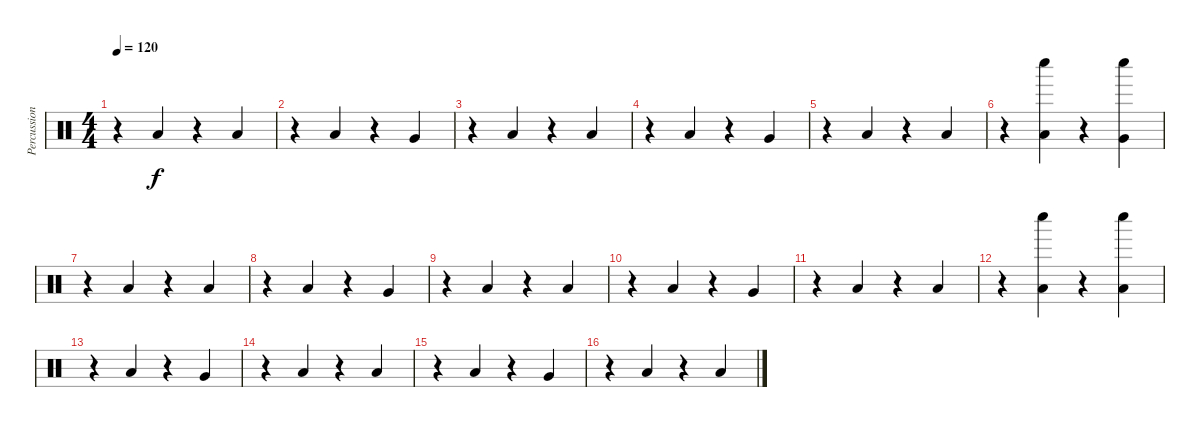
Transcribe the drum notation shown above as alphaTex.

\track ("Percussion" "Percussion") {instrument percussion}
\staff {score}
\articulation defaults
\ts (4 4)
\tempo 120
\clef neutral
\ks c
r.4{dy f} "Low Floor Tom (hit)".4 r.4 "Low Floor Tom (hit)".4 |
r.4 "Low Floor Tom (hit)".4 r.4 "Very Low Tom (hit)".4 |
r.4 "Low Floor Tom (hit)".4 r.4 "Low Floor Tom (hit)".4 |
r.4 "Low Floor Tom (hit)".4 r.4 "Very Low Tom (hit)".4 |
r.4 "Low Floor Tom (hit)".4 r.4 "Low Floor Tom (hit)".4 |
r.4 ("Low Floor Tom (hit)" "Whistle low (hit)").4 r.4 ("Very Low Tom (hit)" "Whistle low (hit)").4 |
r.4 "Low Floor Tom (hit)".4 r.4 "Low Floor Tom (hit)".4 |
r.4 "Low Floor Tom (hit)".4 r.4 "Very Low Tom (hit)".4 |
r.4 "Low Floor Tom (hit)".4 r.4 "Low Floor Tom (hit)".4 |
r.4 "Low Floor Tom (hit)".4 r.4 "Very Low Tom (hit)".4 |
r.4 "Low Floor Tom (hit)".4 r.4 "Low Floor Tom (hit)".4 |
r.4 ("Low Floor Tom (hit)" "Whistle low (hit)").4 r.4 ("Low Floor Tom (hit)" "Whistle low (hit)").4 |
r.4 "Low Floor Tom (hit)".4 r.4 "Very Low Tom (hit)".4 |
r.4 "Low Floor Tom (hit)".4 r.4 "Low Floor Tom (hit)".4 |
r.4 "Low Floor Tom (hit)".4 r.4 "Very Low Tom (hit)".4 |
r.4 "Low Floor Tom (hit)".4 r.4 "Low Floor Tom (hit)".4
